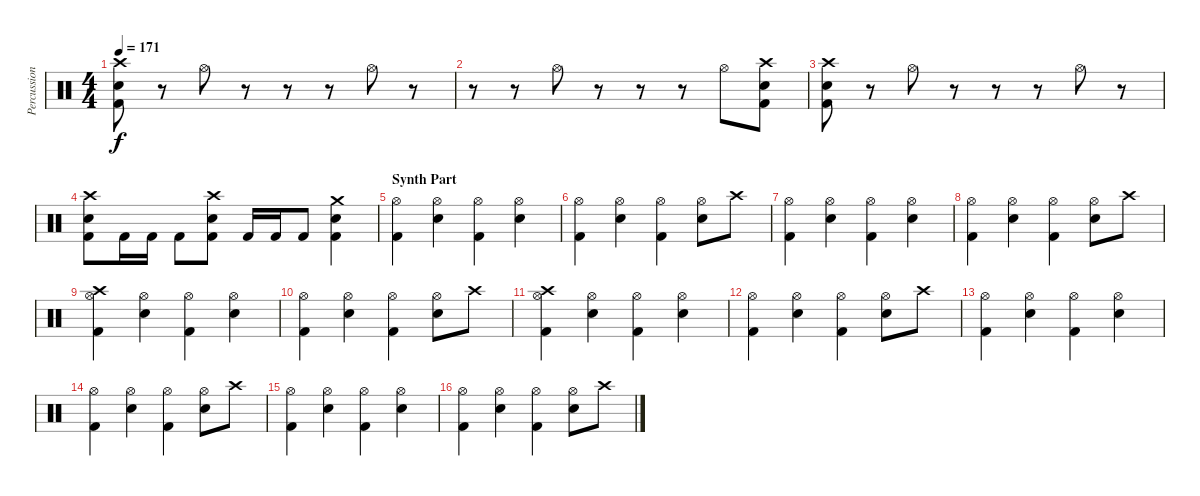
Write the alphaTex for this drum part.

\track ("Percussions" "Percussion") {instrument percussion}
\staff {score}
\articulation defaults
\ts (4 4)
\tempo 171
\clef neutral
\ks c
("Crash high (hit)" "Electric Snare (hit)" "Kick (hit) 2").8{dy f} r.8 "Hi-Hat (open)".8 r.8 r.8 r.8 "Hi-Hat (open)".8 r.8 |
r.8 r.8 "Hi-Hat (open)".8 r.8 r.8 r.8 "Hi-Hat (open)".8 ("Crash high (hit)" "Electric Snare (hit)" "Kick (hit) 2").8 |
("Crash high (hit)" "Electric Snare (hit)" "Kick (hit) 2").8 r.8 "Hi-Hat (open)".8 r.8 r.8 r.8 "Hi-Hat (open)".8 r.8 |
("Crash high (hit)" "Electric Snare (hit)" "Kick (hit) 2").8 "Kick (hit) 2".16 "Kick (hit) 2".16 "Kick (hit) 2".8 ("Crash high (hit)" "Electric Snare (hit)" "Kick (hit) 2").8 "Kick (hit) 2".16 "Kick (hit) 2".16 "Kick (hit) 2".8 ("Crash medium (hit)" "Electric Snare (hit)" "Kick (hit) 2").4 |
\section ("" "Synth Part")
("Hi-Hat (open)" "Kick (hit) 2").4 ("Hi-Hat (open)" "Electric Snare (hit)").4 ("Hi-Hat (open)" "Kick (hit) 2").4 ("Hi-Hat (open)" "Electric Snare (hit)").4 |
("Hi-Hat (open)" "Kick (hit) 2").4 ("Hi-Hat (open)" "Electric Snare (hit)").4 ("Hi-Hat (open)" "Kick (hit) 2").4 ("Hi-Hat (open)" "Electric Snare (hit)").8 "Crash high (hit)".8 |
("Hi-Hat (open)" "Kick (hit) 2").4 ("Hi-Hat (open)" "Electric Snare (hit)").4 ("Hi-Hat (open)" "Kick (hit) 2").4 ("Hi-Hat (open)" "Electric Snare (hit)").4 |
("Hi-Hat (open)" "Kick (hit) 2").4 ("Hi-Hat (open)" "Electric Snare (hit)").4 ("Hi-Hat (open)" "Kick (hit) 2").4 ("Hi-Hat (open)" "Electric Snare (hit)").8 "Crash high (hit)".8 |
("Crash high (hit)" "Hi-Hat (open)" "Kick (hit) 2").4 ("Hi-Hat (open)" "Electric Snare (hit)").4 ("Hi-Hat (open)" "Kick (hit) 2").4 ("Hi-Hat (open)" "Electric Snare (hit)").4 |
("Hi-Hat (open)" "Kick (hit) 2").4 ("Hi-Hat (open)" "Electric Snare (hit)").4 ("Hi-Hat (open)" "Kick (hit) 2").4 ("Hi-Hat (open)" "Electric Snare (hit)").8 "Crash high (hit)".8 |
("Crash high (hit)" "Hi-Hat (open)" "Kick (hit) 2").4 ("Hi-Hat (open)" "Electric Snare (hit)").4 ("Hi-Hat (open)" "Kick (hit) 2").4 ("Hi-Hat (open)" "Electric Snare (hit)").4 |
("Hi-Hat (open)" "Kick (hit) 2").4 ("Hi-Hat (open)" "Electric Snare (hit)").4 ("Hi-Hat (open)" "Kick (hit) 2").4 ("Hi-Hat (open)" "Electric Snare (hit)").8 "Crash high (hit)".8 |
("Hi-Hat (open)" "Kick (hit) 2").4 ("Hi-Hat (open)" "Electric Snare (hit)").4 ("Hi-Hat (open)" "Kick (hit) 2").4 ("Hi-Hat (open)" "Electric Snare (hit)").4 |
("Hi-Hat (open)" "Kick (hit) 2").4 ("Hi-Hat (open)" "Electric Snare (hit)").4 ("Hi-Hat (open)" "Kick (hit) 2").4 ("Hi-Hat (open)" "Electric Snare (hit)").8 "Crash high (hit)".8 |
("Hi-Hat (open)" "Kick (hit) 2").4 ("Hi-Hat (open)" "Electric Snare (hit)").4 ("Hi-Hat (open)" "Kick (hit) 2").4 ("Hi-Hat (open)" "Electric Snare (hit)").4 |
("Hi-Hat (open)" "Kick (hit) 2").4 ("Hi-Hat (open)" "Electric Snare (hit)").4 ("Hi-Hat (open)" "Kick (hit) 2").4 ("Hi-Hat (open)" "Electric Snare (hit)").8 "Crash high (hit)".8
